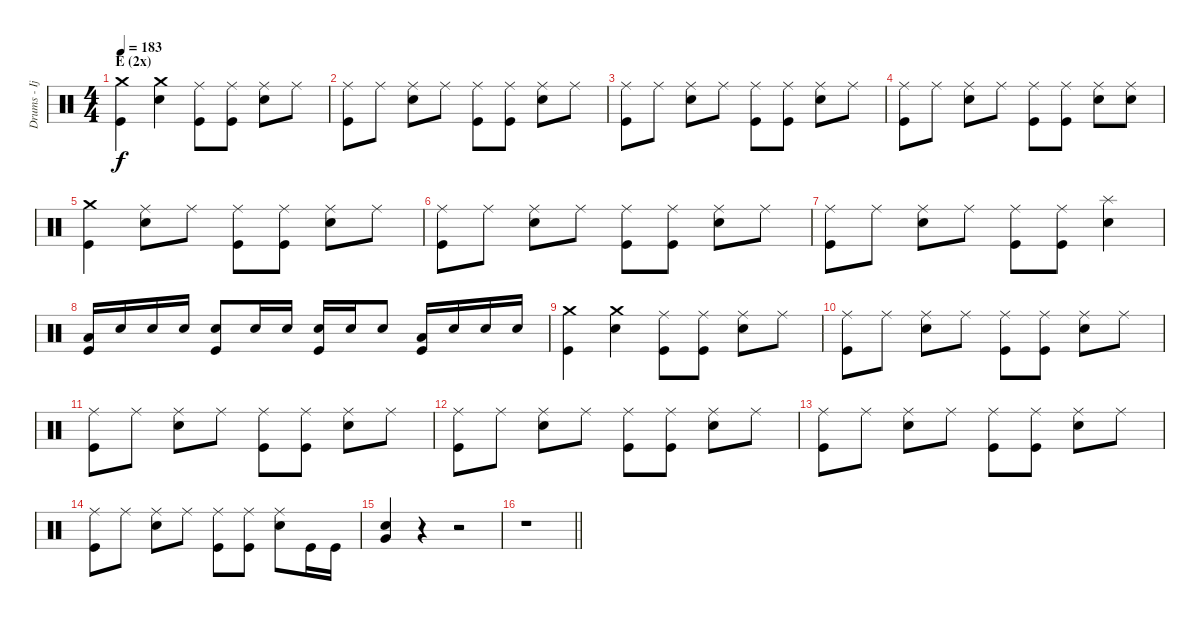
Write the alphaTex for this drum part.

\track ("Drums - Ijichi" "Drums - Ij") {instrument percussion}
\staff {score}
\articulation defaults
\ts (4 4)
\section ("" "E (2x)")
\tempo 183
\clef neutral
\ks c
("Crash medium (hit)" "Kick (hit)").4{dy f} ("Crash medium (hit)" "Electric Snare (hit)").4 ("Ride (middle)" "Kick (hit)").8 ("Ride (middle)" "Kick (hit)").8 ("Ride (middle)" "Electric Snare (hit)").8 "Ride (middle)".8 |
("Ride (middle)" "Kick (hit)").8 "Ride (middle)".8 ("Ride (middle)" "Electric Snare (hit)").8 "Ride (middle)".8 ("Ride (middle)" "Kick (hit)").8 ("Ride (middle)" "Kick (hit)").8 ("Ride (middle)" "Electric Snare (hit)").8 "Ride (middle)".8 |
("Ride (middle)" "Kick (hit)").8 "Ride (middle)".8 ("Ride (middle)" "Electric Snare (hit)").8 "Ride (middle)".8 ("Ride (middle)" "Kick (hit)").8 ("Ride (middle)" "Kick (hit)").8 ("Ride (middle)" "Electric Snare (hit)").8 "Ride (middle)".8 |
("Ride (middle)" "Kick (hit)").8 "Ride (middle)".8 ("Ride (middle)" "Electric Snare (hit)").8 "Ride (middle)".8 ("Ride (middle)" "Kick (hit)").8 ("Ride (middle)" "Kick (hit)").8 ("Ride (middle)" "Electric Snare (hit)").8 ("Ride (middle)" "Electric Snare (hit)").8 |
("Crash medium (hit)" "Kick (hit)").4 ("Ride (middle)" "Electric Snare (hit)").8 "Ride (middle)".8 ("Ride (middle)" "Kick (hit)").8 ("Ride (middle)" "Kick (hit)").8 ("Ride (middle)" "Electric Snare (hit)").8 "Ride (middle)".8 |
("Ride (middle)" "Kick (hit)").8 "Ride (middle)".8 ("Ride (middle)" "Electric Snare (hit)").8 "Ride (middle)".8 ("Ride (middle)" "Kick (hit)").8 ("Ride (middle)" "Kick (hit)").8 ("Ride (middle)" "Electric Snare (hit)").8 "Ride (middle)".8 |
("Ride (middle)" "Kick (hit)").8 "Ride (middle)".8 ("Ride (middle)" "Electric Snare (hit)").8 "Ride (middle)".8 ("Ride (middle)" "Kick (hit)").8 ("Ride (middle)" "Kick (hit)").8 ("Splash (hit)" "Electric Snare (hit)").4 |
("Low Tom (hit)" "Kick (hit)").16 "Electric Snare (hit)".16 "Electric Snare (hit)".16 "Electric Snare (hit)".16 ("Electric Snare (hit)" "Kick (hit)").8 "Electric Snare (hit)".16 "Electric Snare (hit)".16 ("Electric Snare (hit)" "Kick (hit)").16 "Electric Snare (hit)".16 "Electric Snare (hit)".8 ("Low Tom (hit)" "Kick (hit)").16 "Electric Snare (hit)".16 "Electric Snare (hit)".16 "Electric Snare (hit)".16 |
("Crash medium (hit)" "Kick (hit)").4 ("Crash medium (hit)" "Electric Snare (hit)").4 ("Ride (middle)" "Kick (hit)").8 ("Ride (middle)" "Kick (hit)").8 ("Ride (middle)" "Electric Snare (hit)").8 "Ride (middle)".8 |
("Ride (middle)" "Kick (hit)").8 "Ride (middle)".8 ("Ride (middle)" "Electric Snare (hit)").8 "Ride (middle)".8 ("Ride (middle)" "Kick (hit)").8 ("Ride (middle)" "Kick (hit)").8 ("Ride (middle)" "Electric Snare (hit)").8 "Ride (middle)".8 |
("Ride (middle)" "Kick (hit)").8 "Ride (middle)".8 ("Ride (middle)" "Electric Snare (hit)").8 "Ride (middle)".8 ("Ride (middle)" "Kick (hit)").8 ("Ride (middle)" "Kick (hit)").8 ("Ride (middle)" "Electric Snare (hit)").8 "Ride (middle)".8 |
("Ride (middle)" "Kick (hit)").8 "Ride (middle)".8 ("Ride (middle)" "Electric Snare (hit)").8 "Ride (middle)".8 ("Ride (middle)" "Kick (hit)").8 ("Ride (middle)" "Kick (hit)").8 ("Ride (middle)" "Electric Snare (hit)").8 "Ride (middle)".8 |
("Ride (middle)" "Kick (hit)").8 "Ride (middle)".8 ("Ride (middle)" "Electric Snare (hit)").8 "Ride (middle)".8 ("Ride (middle)" "Kick (hit)").8 ("Ride (middle)" "Kick (hit)").8 ("Ride (middle)" "Electric Snare (hit)").8 "Ride (middle)".8 |
("Ride (middle)" "Kick (hit)").8 "Ride (middle)".8 ("Ride (middle)" "Electric Snare (hit)").8 "Ride (middle)".8 ("Ride (middle)" "Kick (hit)").8 ("Ride (middle)" "Kick (hit)").8 ("Ride (middle)" "Electric Snare (hit)").8 "Kick (hit)".16 "Kick (hit)".16 |
("Electric Snare (hit)" "Very Low Tom (hit)").4 r.4 r.2 |
\barLineRight lightlight
r.1
